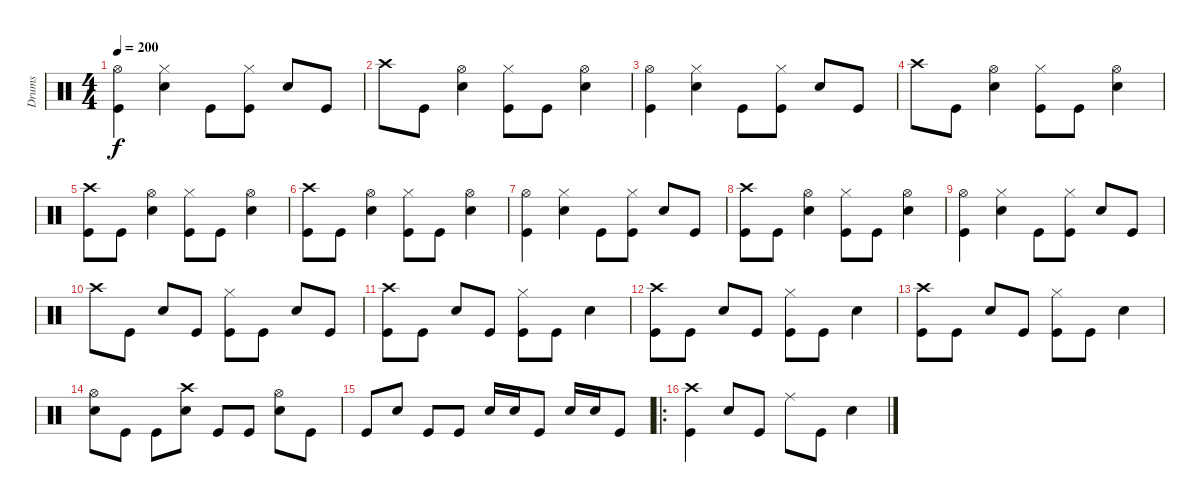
\track ("Drums" "Drums") {instrument percussion}
\staff {score}
\articulation defaults
\ts (4 4)
\tempo 200
\clef neutral
\ks c
("Hi-Hat (open)" "Kick (hit)").4{dy f} ("Hi-Hat (closed)" "Snare (hit) 2").4 "Kick (hit)".8 ("Hi-Hat (closed)" "Kick (hit)").8 "Snare (hit) 2".8 "Kick (hit)".8 |
"Crash high (hit)".8 "Kick (hit)".8 ("Hi-Hat (open)" "Snare (hit) 2").4 ("Hi-Hat (closed)" "Kick (hit)").8 "Kick (hit)".8 ("Hi-Hat (open)" "Snare (hit) 2").4 |
("Hi-Hat (open)" "Kick (hit)").4 ("Hi-Hat (closed)" "Snare (hit) 2").4 "Kick (hit)".8 ("Hi-Hat (closed)" "Kick (hit)").8 "Snare (hit) 2".8 "Kick (hit)".8 |
"Crash high (hit)".8 "Kick (hit)".8 ("Hi-Hat (open)" "Snare (hit) 2").4 ("Hi-Hat (closed)" "Kick (hit)").8 "Kick (hit)".8 ("Hi-Hat (open)" "Snare (hit) 2").4 |
("Crash high (hit)" "Kick (hit)").8 "Kick (hit)".8 ("Hi-Hat (open)" "Snare (hit) 2").4 ("Hi-Hat (closed)" "Kick (hit)").8 "Kick (hit)".8 ("Hi-Hat (open)" "Snare (hit) 2").4 |
("Crash high (hit)" "Kick (hit)").8 "Kick (hit)".8 ("Hi-Hat (open)" "Snare (hit) 2").4 ("Hi-Hat (closed)" "Kick (hit)").8 "Kick (hit)".8 ("Hi-Hat (open)" "Snare (hit) 2").4 |
("Hi-Hat (open)" "Kick (hit)").4 ("Hi-Hat (closed)" "Snare (hit) 2").4 "Kick (hit)".8 ("Hi-Hat (closed)" "Kick (hit)").8 "Snare (hit) 2".8 "Kick (hit)".8 |
("Crash high (hit)" "Kick (hit)").8 "Kick (hit)".8 ("Hi-Hat (open)" "Snare (hit) 2").4 ("Hi-Hat (closed)" "Kick (hit)").8 "Kick (hit)".8 ("Hi-Hat (open)" "Snare (hit) 2").4 |
("Hi-Hat (open)" "Kick (hit)").4 ("Hi-Hat (closed)" "Snare (hit) 2").4 "Kick (hit)".8 ("Hi-Hat (closed)" "Kick (hit)").8 "Snare (hit) 2".8 "Kick (hit)".8 |
"Crash high (hit)".8 "Kick (hit)".8 "Snare (hit) 2".8 "Kick (hit)".8 ("Hi-Hat (closed)" "Kick (hit)").8 "Kick (hit)".8 "Snare (hit) 2".8 "Kick (hit)".8 |
("Crash high (hit)" "Kick (hit)").8 "Kick (hit)".8 "Snare (hit) 2".8 "Kick (hit)".8 ("Hi-Hat (closed)" "Kick (hit)").8 "Kick (hit)".8 "Snare (hit) 2".4 |
("Crash high (hit)" "Kick (hit)").8 "Kick (hit)".8 "Snare (hit) 2".8 "Kick (hit)".8 ("Hi-Hat (closed)" "Kick (hit)").8 "Kick (hit)".8 "Snare (hit) 2".4 |
("Crash high (hit)" "Kick (hit)").8 "Kick (hit)".8 "Snare (hit) 2".8 "Kick (hit)".8 ("Hi-Hat (closed)" "Kick (hit)").8 "Kick (hit)".8 "Snare (hit) 2".4 |
("Hi-Hat (open)" "Snare (hit) 2").8 "Kick (hit)".8 "Kick (hit)".8 ("Crash high (hit)" "Snare (hit) 2").8 "Kick (hit)".8 "Kick (hit)".8 ("Hi-Hat (open)" "Snare (hit) 2").8 "Kick (hit)".8 |
"Kick (hit)".8 "Snare (hit) 2".8 "Kick (hit)".8 "Kick (hit)".8 "Snare (hit) 2".16 "Snare (hit) 2".16 "Kick (hit)".8 "Snare (hit) 2".16 "Snare (hit) 2".16 "Kick (hit)".8 |
\ro
("Crash high (hit)" "Kick (hit)").4 "Snare (hit) 2".8 "Kick (hit)".8 "Ride (middle)".8 "Kick (hit)".8 "Snare (hit) 2".4
